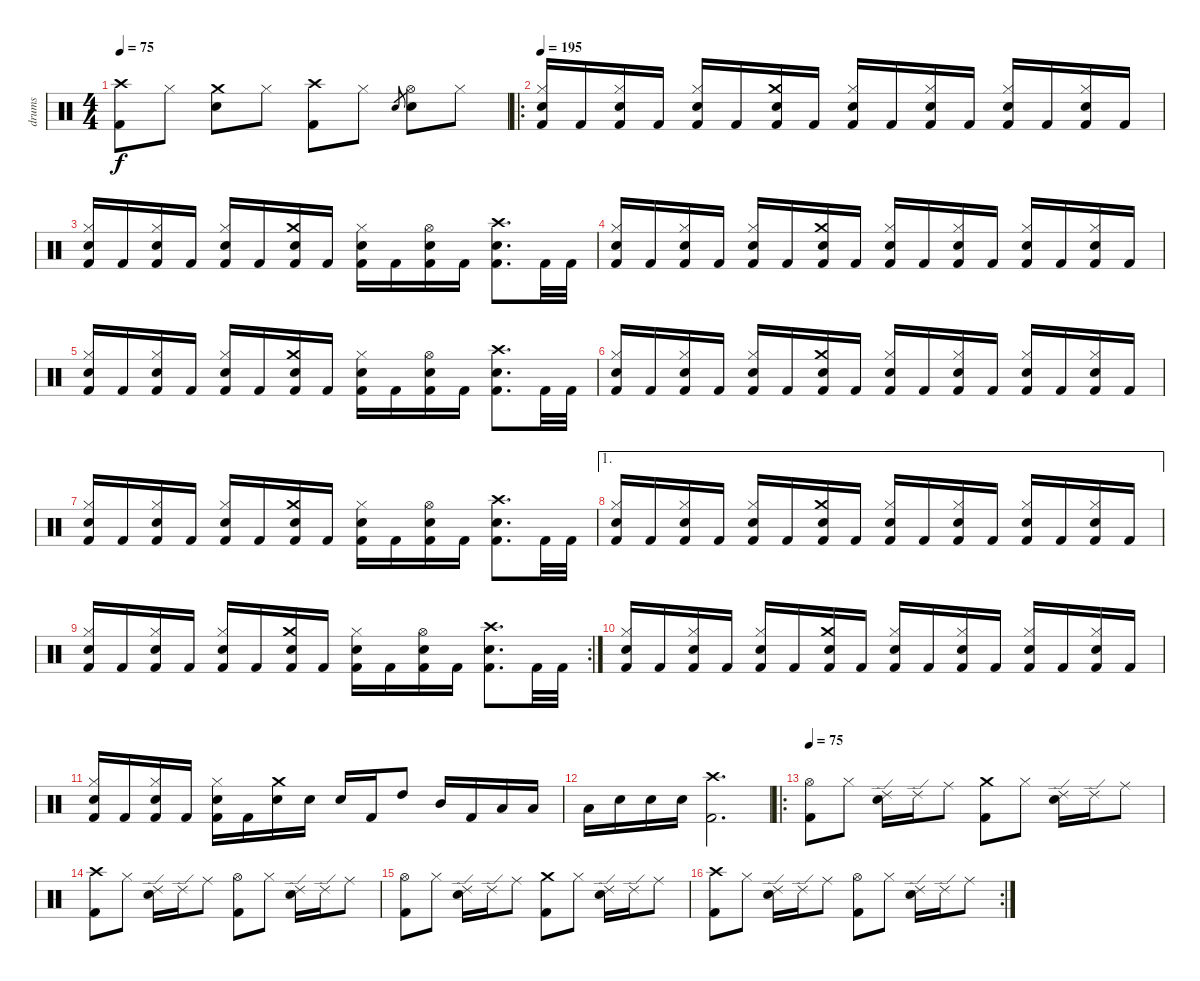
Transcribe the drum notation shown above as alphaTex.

\track ("drums" "drums") {instrument percussion}
\staff {score}
\articulation defaults
\ts (4 4)
\tempo 75
\clef neutral
\ks c
("Crash high (hit)" "Kick (hit) 2").8{dy f} "Hi-Hat (closed)".8 ("Crash medium (hit)" "Electric Snare (hit)").8 "Hi-Hat (closed)".8 ("Crash high (hit)" "Kick (hit) 2").8 "Hi-Hat (closed)".8 "Electric Snare (hit)".8{gr} ("Hi-Hat (open)" "Electric Snare (hit)").8 "Hi-Hat (closed)".8 |
\ro
\tempo 195
("Hi-Hat (closed)" "Electric Snare (hit)" "Kick (hit) 2").16 "Kick (hit) 2".16 ("Hi-Hat (closed)" "Electric Snare (hit)" "Kick (hit) 2").16 "Kick (hit) 2".16 ("Hi-Hat (closed)" "Electric Snare (hit)" "Kick (hit) 2").16 "Kick (hit) 2".16 ("Crash medium (hit)" "Electric Snare (hit)" "Kick (hit) 2").16 "Kick (hit) 2".16 ("Hi-Hat (closed)" "Electric Snare (hit)" "Kick (hit) 2").16 "Kick (hit) 2".16 ("Hi-Hat (closed)" "Electric Snare (hit)" "Kick (hit) 2").16 "Kick (hit) 2".16 ("Hi-Hat (closed)" "Electric Snare (hit)" "Kick (hit) 2").16 "Kick (hit) 2".16 ("Hi-Hat (closed)" "Electric Snare (hit)" "Kick (hit) 2").16 "Kick (hit) 2".16 |
("Hi-Hat (closed)" "Electric Snare (hit)" "Kick (hit) 2").16 "Kick (hit) 2".16 ("Hi-Hat (closed)" "Electric Snare (hit)" "Kick (hit) 2").16 "Kick (hit) 2".16 ("Hi-Hat (closed)" "Electric Snare (hit)" "Kick (hit) 2").16 "Kick (hit) 2".16 ("Crash medium (hit)" "Electric Snare (hit)" "Kick (hit) 2").16 "Kick (hit) 2".16 ("Hi-Hat (closed)" "Electric Snare (hit)" "Kick (hit) 2").16 "Kick (hit) 2".16 ("Hi-Hat (open)" "Electric Snare (hit)" "Kick (hit) 2").16 "Kick (hit) 2".16 ("Crash high (hit)" "Electric Snare (hit)" "Kick (hit) 2").8{d} "Kick (hit) 2".32 "Kick (hit) 2".32 |
("Hi-Hat (closed)" "Electric Snare (hit)" "Kick (hit) 2").16 "Kick (hit) 2".16 ("Hi-Hat (closed)" "Electric Snare (hit)" "Kick (hit) 2").16 "Kick (hit) 2".16 ("Hi-Hat (closed)" "Electric Snare (hit)" "Kick (hit) 2").16 "Kick (hit) 2".16 ("Crash medium (hit)" "Electric Snare (hit)" "Kick (hit) 2").16 "Kick (hit) 2".16 ("Hi-Hat (closed)" "Electric Snare (hit)" "Kick (hit) 2").16 "Kick (hit) 2".16 ("Hi-Hat (closed)" "Electric Snare (hit)" "Kick (hit) 2").16 "Kick (hit) 2".16 ("Hi-Hat (closed)" "Electric Snare (hit)" "Kick (hit) 2").16 "Kick (hit) 2".16 ("Hi-Hat (closed)" "Electric Snare (hit)" "Kick (hit) 2").16 "Kick (hit) 2".16 |
("Hi-Hat (closed)" "Electric Snare (hit)" "Kick (hit) 2").16 "Kick (hit) 2".16 ("Hi-Hat (closed)" "Electric Snare (hit)" "Kick (hit) 2").16 "Kick (hit) 2".16 ("Hi-Hat (closed)" "Electric Snare (hit)" "Kick (hit) 2").16 "Kick (hit) 2".16 ("Crash medium (hit)" "Electric Snare (hit)" "Kick (hit) 2").16 "Kick (hit) 2".16 ("Hi-Hat (closed)" "Electric Snare (hit)" "Kick (hit) 2").16 "Kick (hit) 2".16 ("Hi-Hat (open)" "Electric Snare (hit)" "Kick (hit) 2").16 "Kick (hit) 2".16 ("Crash high (hit)" "Electric Snare (hit)" "Kick (hit) 2").8{d} "Kick (hit) 2".32 "Kick (hit) 2".32 |
("Hi-Hat (closed)" "Electric Snare (hit)" "Kick (hit) 2").16 "Kick (hit) 2".16 ("Hi-Hat (closed)" "Electric Snare (hit)" "Kick (hit) 2").16 "Kick (hit) 2".16 ("Hi-Hat (closed)" "Electric Snare (hit)" "Kick (hit) 2").16 "Kick (hit) 2".16 ("Crash medium (hit)" "Electric Snare (hit)" "Kick (hit) 2").16 "Kick (hit) 2".16 ("Hi-Hat (closed)" "Electric Snare (hit)" "Kick (hit) 2").16 "Kick (hit) 2".16 ("Hi-Hat (closed)" "Electric Snare (hit)" "Kick (hit) 2").16 "Kick (hit) 2".16 ("Hi-Hat (closed)" "Electric Snare (hit)" "Kick (hit) 2").16 "Kick (hit) 2".16 ("Hi-Hat (closed)" "Electric Snare (hit)" "Kick (hit) 2").16 "Kick (hit) 2".16 |
("Hi-Hat (closed)" "Electric Snare (hit)" "Kick (hit) 2").16 "Kick (hit) 2".16 ("Hi-Hat (closed)" "Electric Snare (hit)" "Kick (hit) 2").16 "Kick (hit) 2".16 ("Hi-Hat (closed)" "Electric Snare (hit)" "Kick (hit) 2").16 "Kick (hit) 2".16 ("Crash medium (hit)" "Electric Snare (hit)" "Kick (hit) 2").16 "Kick (hit) 2".16 ("Hi-Hat (closed)" "Electric Snare (hit)" "Kick (hit) 2").16 "Kick (hit) 2".16 ("Hi-Hat (open)" "Electric Snare (hit)" "Kick (hit) 2").16 "Kick (hit) 2".16 ("Crash high (hit)" "Electric Snare (hit)" "Kick (hit) 2").8{d} "Kick (hit) 2".32 "Kick (hit) 2".32 |
\ae 1
("Hi-Hat (closed)" "Electric Snare (hit)" "Kick (hit) 2").16 "Kick (hit) 2".16 ("Hi-Hat (closed)" "Electric Snare (hit)" "Kick (hit) 2").16 "Kick (hit) 2".16 ("Hi-Hat (closed)" "Electric Snare (hit)" "Kick (hit) 2").16 "Kick (hit) 2".16 ("Crash medium (hit)" "Electric Snare (hit)" "Kick (hit) 2").16 "Kick (hit) 2".16 ("Hi-Hat (closed)" "Electric Snare (hit)" "Kick (hit) 2").16 "Kick (hit) 2".16 ("Hi-Hat (closed)" "Electric Snare (hit)" "Kick (hit) 2").16 "Kick (hit) 2".16 ("Hi-Hat (closed)" "Electric Snare (hit)" "Kick (hit) 2").16 "Kick (hit) 2".16 ("Hi-Hat (closed)" "Electric Snare (hit)" "Kick (hit) 2").16 "Kick (hit) 2".16 |
\rc 2
("Hi-Hat (closed)" "Electric Snare (hit)" "Kick (hit) 2").16 "Kick (hit) 2".16 ("Hi-Hat (closed)" "Electric Snare (hit)" "Kick (hit) 2").16 "Kick (hit) 2".16 ("Hi-Hat (closed)" "Electric Snare (hit)" "Kick (hit) 2").16 "Kick (hit) 2".16 ("Crash medium (hit)" "Electric Snare (hit)" "Kick (hit) 2").16 "Kick (hit) 2".16 ("Hi-Hat (closed)" "Electric Snare (hit)" "Kick (hit) 2").16 "Kick (hit) 2".16 ("Hi-Hat (open)" "Electric Snare (hit)" "Kick (hit) 2").16 "Kick (hit) 2".16 ("Crash high (hit)" "Electric Snare (hit)" "Kick (hit) 2").8{d} "Kick (hit) 2".32 "Kick (hit) 2".32 |
("Hi-Hat (closed)" "Electric Snare (hit)" "Kick (hit) 2").16 "Kick (hit) 2".16 ("Hi-Hat (closed)" "Electric Snare (hit)" "Kick (hit) 2").16 "Kick (hit) 2".16 ("Hi-Hat (closed)" "Electric Snare (hit)" "Kick (hit) 2").16 "Kick (hit) 2".16 ("Crash medium (hit)" "Electric Snare (hit)" "Kick (hit) 2").16 "Kick (hit) 2".16 ("Hi-Hat (closed)" "Electric Snare (hit)" "Kick (hit) 2").16 "Kick (hit) 2".16 ("Hi-Hat (closed)" "Electric Snare (hit)" "Kick (hit) 2").16 "Kick (hit) 2".16 ("Hi-Hat (closed)" "Electric Snare (hit)" "Kick (hit) 2").16 "Kick (hit) 2".16 ("Hi-Hat (closed)" "Electric Snare (hit)" "Kick (hit) 2").16 "Kick (hit) 2".16 |
("Hi-Hat (closed)" "Electric Snare (hit)" "Kick (hit) 2").16 "Kick (hit) 2".16 ("Hi-Hat (closed)" "Electric Snare (hit)" "Kick (hit) 2").16 "Kick (hit) 2".16 ("Hi-Hat (closed)" "Electric Snare (hit)" "Kick (hit) 2").16 "Kick (hit) 2".16 ("Crash medium (hit)" "Electric Snare (hit)").16 "Electric Snare (hit)".16 "Electric Snare (hit)".16 "Kick (hit) 2".16 "High Tom (hit)".8 "Mid Tom (hit)".16 "Kick (hit) 2".16 "Low Tom (hit)".16 "Low Tom (hit)".16 |
"Low Tom (hit)".16 "Electric Snare (hit)".16 "Electric Snare (hit)".16 "Electric Snare (hit)".16 ("Crash high (hit)" "Kick (hit) 2").2{d} |
\ro
\tempo 75
("Hi-Hat (open)" "Kick (hit) 2").8 "Hi-Hat (closed)".8 ("Ride (edge) 2" "Electric Snare (hit)").16 "Ride (edge) 2".16 "Ride (middle)".8 ("Crash medium (hit)" "Kick (hit) 2").8 "Hi-Hat (closed)".8 ("Ride (edge) 2" "Electric Snare (hit)").16 "Ride (edge) 2".16 "Ride (middle)".8 |
("Crash high (hit)" "Kick (hit) 2").8 "Hi-Hat (closed)".8 ("Ride (edge) 2" "Electric Snare (hit)").16 "Ride (edge) 2".16 "Ride (middle)".8 ("Hi-Hat (open)" "Kick (hit) 2").8 "Hi-Hat (closed)".8 ("Ride (edge) 2" "Electric Snare (hit)").16 "Ride (edge) 2".16 "Ride (middle)".8 |
("Hi-Hat (open)" "Kick (hit) 2").8 "Hi-Hat (closed)".8 ("Ride (edge) 2" "Electric Snare (hit)").16 "Ride (edge) 2".16 "Ride (middle)".8 ("Crash medium (hit)" "Kick (hit) 2").8 "Hi-Hat (closed)".8 ("Ride (edge) 2" "Electric Snare (hit)").16 "Ride (edge) 2".16 "Ride (middle)".8 |
\rc 2
("Crash high (hit)" "Kick (hit) 2").8 "Hi-Hat (closed)".8 ("Ride (edge) 2" "Electric Snare (hit)").16 "Ride (edge) 2".16 "Ride (middle)".8 ("Hi-Hat (open)" "Kick (hit) 2").8 "Hi-Hat (closed)".8 ("Ride (edge) 2" "Electric Snare (hit)").16 "Ride (edge) 2".16 "Ride (middle)".8
